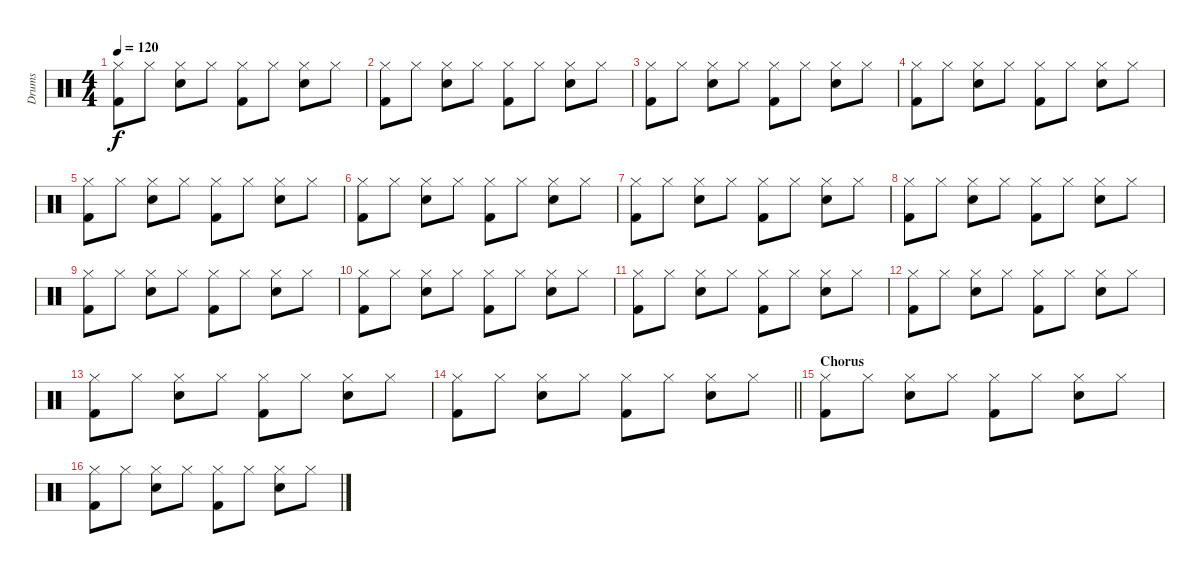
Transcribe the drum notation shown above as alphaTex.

\track ("Drums" "Drums") {instrument percussion}
\staff {score}
\articulation defaults
\ts (4 4)
\tempo 120
\clef neutral
\ks c
("Hi-Hat (closed)" "Kick (hit) 2").8{dy f} "Hi-Hat (closed)".8 ("Hi-Hat (closed)" "Snare (hit) 2").8 "Hi-Hat (closed)".8 ("Hi-Hat (closed)" "Kick (hit) 2").8 "Hi-Hat (closed)".8 ("Hi-Hat (closed)" "Snare (hit) 2").8 "Hi-Hat (closed)".8 |
("Hi-Hat (closed)" "Kick (hit) 2").8 "Hi-Hat (closed)".8 ("Hi-Hat (closed)" "Snare (hit) 2").8 "Hi-Hat (closed)".8 ("Hi-Hat (closed)" "Kick (hit) 2").8 "Hi-Hat (closed)".8 ("Hi-Hat (closed)" "Snare (hit) 2").8 "Hi-Hat (closed)".8 |
("Hi-Hat (closed)" "Kick (hit) 2").8 "Hi-Hat (closed)".8 ("Hi-Hat (closed)" "Snare (hit) 2").8 "Hi-Hat (closed)".8 ("Hi-Hat (closed)" "Kick (hit) 2").8 "Hi-Hat (closed)".8 ("Hi-Hat (closed)" "Snare (hit) 2").8 "Hi-Hat (closed)".8 |
("Hi-Hat (closed)" "Kick (hit) 2").8 "Hi-Hat (closed)".8 ("Hi-Hat (closed)" "Snare (hit) 2").8 "Hi-Hat (closed)".8 ("Hi-Hat (closed)" "Kick (hit) 2").8 "Hi-Hat (closed)".8 ("Hi-Hat (closed)" "Snare (hit) 2").8 "Hi-Hat (closed)".8 |
("Hi-Hat (closed)" "Kick (hit) 2").8 "Hi-Hat (closed)".8 ("Hi-Hat (closed)" "Snare (hit) 2").8 "Hi-Hat (closed)".8 ("Hi-Hat (closed)" "Kick (hit) 2").8 "Hi-Hat (closed)".8 ("Hi-Hat (closed)" "Snare (hit) 2").8 "Hi-Hat (closed)".8 |
("Hi-Hat (closed)" "Kick (hit) 2").8 "Hi-Hat (closed)".8 ("Hi-Hat (closed)" "Snare (hit) 2").8 "Hi-Hat (closed)".8 ("Hi-Hat (closed)" "Kick (hit) 2").8 "Hi-Hat (closed)".8 ("Hi-Hat (closed)" "Snare (hit) 2").8 "Hi-Hat (closed)".8 |
("Hi-Hat (closed)" "Kick (hit) 2").8 "Hi-Hat (closed)".8 ("Hi-Hat (closed)" "Snare (hit) 2").8 "Hi-Hat (closed)".8 ("Hi-Hat (closed)" "Kick (hit) 2").8 "Hi-Hat (closed)".8 ("Hi-Hat (closed)" "Snare (hit) 2").8 "Hi-Hat (closed)".8 |
("Hi-Hat (closed)" "Kick (hit) 2").8 "Hi-Hat (closed)".8 ("Hi-Hat (closed)" "Snare (hit) 2").8 "Hi-Hat (closed)".8 ("Hi-Hat (closed)" "Kick (hit) 2").8 "Hi-Hat (closed)".8 ("Hi-Hat (closed)" "Snare (hit) 2").8 "Hi-Hat (closed)".8 |
("Hi-Hat (closed)" "Kick (hit) 2").8 "Hi-Hat (closed)".8 ("Hi-Hat (closed)" "Snare (hit) 2").8 "Hi-Hat (closed)".8 ("Hi-Hat (closed)" "Kick (hit) 2").8 "Hi-Hat (closed)".8 ("Hi-Hat (closed)" "Snare (hit) 2").8 "Hi-Hat (closed)".8 |
("Hi-Hat (closed)" "Kick (hit) 2").8 "Hi-Hat (closed)".8 ("Hi-Hat (closed)" "Snare (hit) 2").8 "Hi-Hat (closed)".8 ("Hi-Hat (closed)" "Kick (hit) 2").8 "Hi-Hat (closed)".8 ("Hi-Hat (closed)" "Snare (hit) 2").8 "Hi-Hat (closed)".8 |
("Hi-Hat (closed)" "Kick (hit) 2").8 "Hi-Hat (closed)".8 ("Hi-Hat (closed)" "Snare (hit) 2").8 "Hi-Hat (closed)".8 ("Hi-Hat (closed)" "Kick (hit) 2").8 "Hi-Hat (closed)".8 ("Hi-Hat (closed)" "Snare (hit) 2").8 "Hi-Hat (closed)".8 |
("Hi-Hat (closed)" "Kick (hit) 2").8 "Hi-Hat (closed)".8 ("Hi-Hat (closed)" "Snare (hit) 2").8 "Hi-Hat (closed)".8 ("Hi-Hat (closed)" "Kick (hit) 2").8 "Hi-Hat (closed)".8 ("Hi-Hat (closed)" "Snare (hit) 2").8 "Hi-Hat (closed)".8 |
("Hi-Hat (closed)" "Kick (hit) 2").8 "Hi-Hat (closed)".8 ("Hi-Hat (closed)" "Snare (hit) 2").8 "Hi-Hat (closed)".8 ("Hi-Hat (closed)" "Kick (hit) 2").8 "Hi-Hat (closed)".8 ("Hi-Hat (closed)" "Snare (hit) 2").8 "Hi-Hat (closed)".8 |
\barLineRight lightlight
("Hi-Hat (closed)" "Kick (hit) 2").8 "Hi-Hat (closed)".8 ("Hi-Hat (closed)" "Snare (hit) 2").8 "Hi-Hat (closed)".8 ("Hi-Hat (closed)" "Kick (hit) 2").8 "Hi-Hat (closed)".8 ("Hi-Hat (closed)" "Snare (hit) 2").8 "Hi-Hat (closed)".8 |
\section ("" "Chorus")
("Hi-Hat (closed)" "Kick (hit) 2").8 "Hi-Hat (closed)".8 ("Hi-Hat (closed)" "Snare (hit) 2").8 "Hi-Hat (closed)".8 ("Hi-Hat (closed)" "Kick (hit) 2").8 "Hi-Hat (closed)".8 ("Hi-Hat (closed)" "Snare (hit) 2").8 "Hi-Hat (closed)".8 |
("Hi-Hat (closed)" "Kick (hit) 2").8 "Hi-Hat (closed)".8 ("Hi-Hat (closed)" "Snare (hit) 2").8 "Hi-Hat (closed)".8 ("Hi-Hat (closed)" "Kick (hit) 2").8 "Hi-Hat (closed)".8 ("Hi-Hat (closed)" "Snare (hit) 2").8 "Hi-Hat (closed)".8
